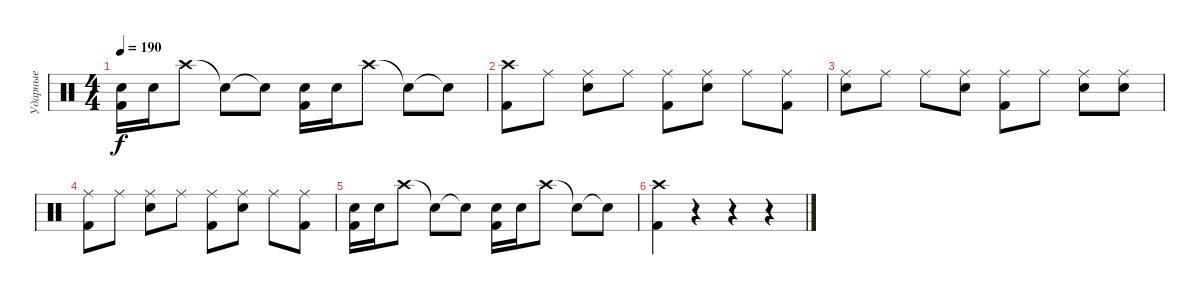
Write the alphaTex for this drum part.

\track ("Ударные" "Ударные") {instrument percussion}
\staff {score}
\articulation defaults
\ts (4 4)
\tempo 190
\clef neutral
\ks c
("Electric Snare (hit)" "Kick (hit) 2").16{dy f} "Electric Snare (hit)".16 "Crash high (hit)".8 "Snare (hit)"{t}.8 "Snare (hit)"{t}.8 ("Electric Snare (hit)" "Kick (hit) 2").16 "Electric Snare (hit)".16 "Crash high (hit)".8 "Snare (hit)"{t}.8 "Snare (hit)"{t}.8 |
("Crash high (hit)" "Kick (hit) 2").8 "Ride (middle)".8 ("Ride (middle)" "Electric Snare (hit)").8 "Ride (middle)".8 ("Ride (middle)" "Kick (hit) 2").8 ("Ride (middle)" "Electric Snare (hit)").8 "Ride (middle)".8 ("Ride (middle)" "Kick (hit) 2").8 |
("Ride (middle)" "Electric Snare (hit)").8 "Ride (middle)".8 "Ride (middle)".8 ("Ride (middle)" "Electric Snare (hit)").8 ("Ride (middle)" "Kick (hit) 2").8 "Ride (middle)".8 ("Ride (middle)" "Electric Snare (hit)").8 ("Ride (middle)" "Electric Snare (hit)").8 |
("Ride (middle)" "Kick (hit) 2").8 "Ride (middle)".8 ("Ride (middle)" "Electric Snare (hit)").8 "Ride (middle)".8 ("Ride (middle)" "Kick (hit) 2").8 ("Ride (middle)" "Electric Snare (hit)").8 "Ride (middle)".8 ("Ride (middle)" "Kick (hit) 2").8 |
("Electric Snare (hit)" "Kick (hit) 2").16 "Electric Snare (hit)".16 "Crash high (hit)".8 "Snare (hit)"{t}.8 "Snare (hit)"{t}.8 ("Electric Snare (hit)" "Kick (hit) 2").16 "Electric Snare (hit)".16 "Crash high (hit)".8 "Snare (hit)"{t}.8 "Snare (hit)"{t}.8 |
("Crash high (hit)" "Kick (hit) 2").4 r.4 r.4 r.4
